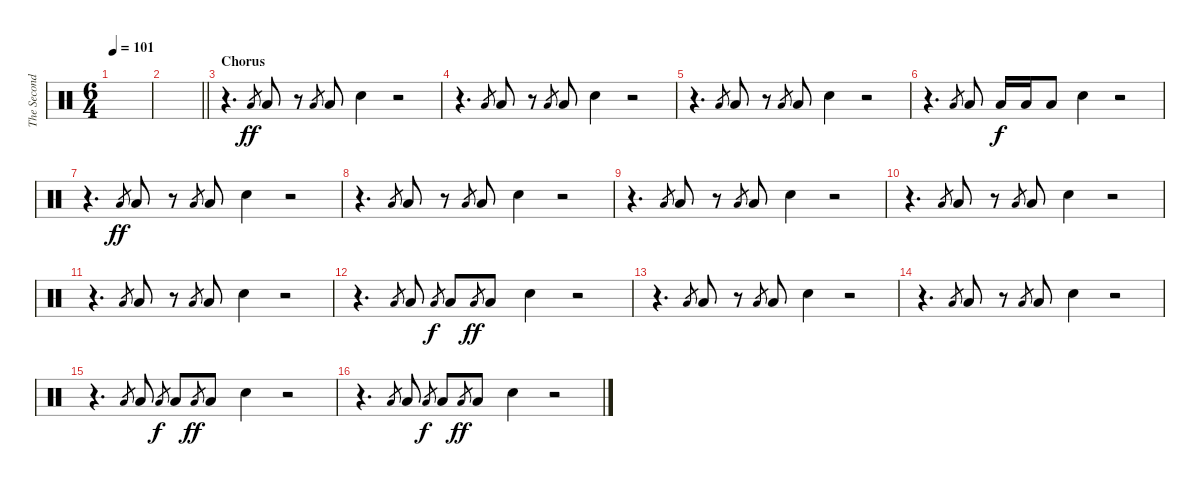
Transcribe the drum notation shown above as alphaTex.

\track ("The Second Drummer" "The Second") {instrument percussion}
\staff {score}
\articulation defaults
\ts (6 4)
\tempo 101
\clef neutral
\ks c
|
\barLineRight lightlight
|
\section ("" "Chorus")
r.4{d} "Low Floor Tom (hit)".8{gr dy ff} "Low Floor Tom (hit)".8 r.8 "Low Floor Tom (hit)".8{gr} "Low Floor Tom (hit)".8 "Electric Snare (hit)".4 r.2 |
r.4{d} "Low Floor Tom (hit)".8{gr} "Low Floor Tom (hit)".8 r.8 "Low Floor Tom (hit)".8{gr} "Low Floor Tom (hit)".8 "Electric Snare (hit)".4 r.2 |
r.4{d} "Low Floor Tom (hit)".8{gr} "Low Floor Tom (hit)".8 r.8 "Low Floor Tom (hit)".8{gr} "Low Floor Tom (hit)".8 "Electric Snare (hit)".4 r.2 |
r.4{d} "Low Floor Tom (hit)".8{gr} "Low Floor Tom (hit)".8 "Low Floor Tom (hit)".16{dy f} "Low Floor Tom (hit)".16 "Low Floor Tom (hit)".8 "Electric Snare (hit)".4 r.2 |
r.4{d} "Low Floor Tom (hit)".8{gr dy ff} "Low Floor Tom (hit)".8 r.8 "Low Floor Tom (hit)".8{gr} "Low Floor Tom (hit)".8 "Electric Snare (hit)".4 r.2 |
r.4{d} "Low Floor Tom (hit)".8{gr} "Low Floor Tom (hit)".8 r.8 "Low Floor Tom (hit)".8{gr} "Low Floor Tom (hit)".8 "Electric Snare (hit)".4 r.2 |
r.4{d} "Low Floor Tom (hit)".8{gr} "Low Floor Tom (hit)".8 r.8 "Low Floor Tom (hit)".8{gr} "Low Floor Tom (hit)".8 "Electric Snare (hit)".4 r.2 |
r.4{d} "Low Floor Tom (hit)".8{gr} "Low Floor Tom (hit)".8 r.8 "Low Floor Tom (hit)".8{gr} "Low Floor Tom (hit)".8 "Electric Snare (hit)".4 r.2 |
r.4{d} "Low Floor Tom (hit)".8{gr} "Low Floor Tom (hit)".8 r.8 "Low Floor Tom (hit)".8{gr} "Low Floor Tom (hit)".8 "Electric Snare (hit)".4 r.2 |
r.4{d} "Low Floor Tom (hit)".8{gr} "Low Floor Tom (hit)".8 "Low Floor Tom (hit)".8{gr dy f} "Low Floor Tom (hit)".8 "Low Floor Tom (hit)".8{gr dy ff} "Low Floor Tom (hit)".8 "Electric Snare (hit)".4 r.2 |
r.4{d} "Low Floor Tom (hit)".8{gr} "Low Floor Tom (hit)".8 r.8 "Low Floor Tom (hit)".8{gr} "Low Floor Tom (hit)".8 "Electric Snare (hit)".4 r.2 |
r.4{d} "Low Floor Tom (hit)".8{gr} "Low Floor Tom (hit)".8 r.8 "Low Floor Tom (hit)".8{gr} "Low Floor Tom (hit)".8 "Electric Snare (hit)".4 r.2 |
r.4{d} "Low Floor Tom (hit)".8{gr} "Low Floor Tom (hit)".8 "Low Floor Tom (hit)".8{gr dy f} "Low Floor Tom (hit)".8 "Low Floor Tom (hit)".8{gr dy ff} "Low Floor Tom (hit)".8 "Electric Snare (hit)".4 r.2 |
r.4{d} "Low Floor Tom (hit)".8{gr} "Low Floor Tom (hit)".8 "Low Floor Tom (hit)".8{gr dy f} "Low Floor Tom (hit)".8 "Low Floor Tom (hit)".8{gr dy ff} "Low Floor Tom (hit)".8 "Electric Snare (hit)".4 r.2
